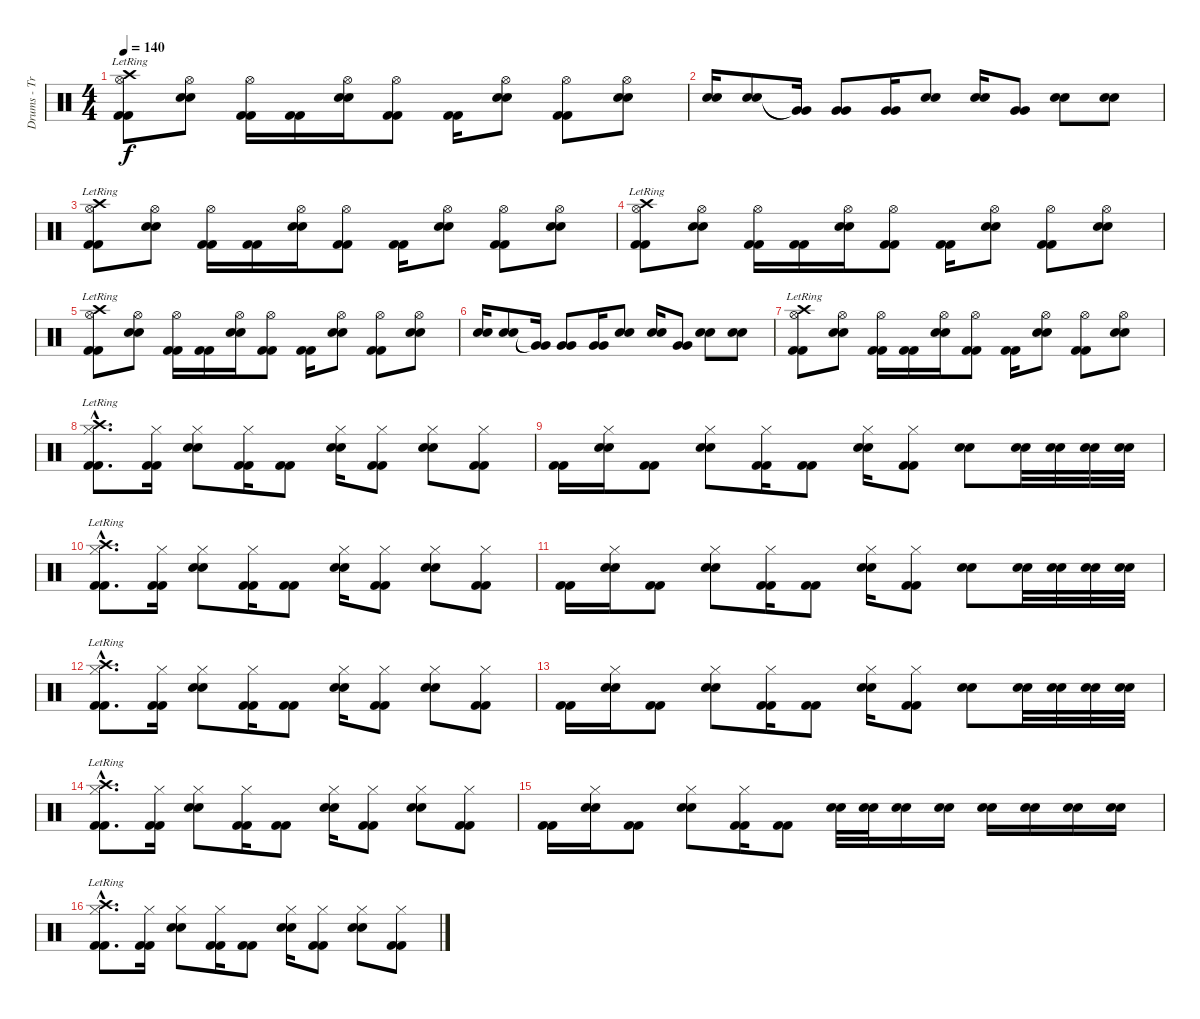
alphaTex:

\track ("Drums - Travis Barker" "Drums - Tr") {instrument percussion}
\staff {score}
\articulation defaults
\ts (4 4)
\tempo 140
\clef neutral
\ks c
("Kick (hit) 2" "Kick (hit) 2" "Hi-Hat (open)" "Crash high (hit)"{lr}).8{dy f} ("Snare (hit) 2" "Snare (hit) 2" "Hi-Hat (open)").8 ("Kick (hit) 2" "Kick (hit) 2" "Hi-Hat (open)").16 ("Kick (hit) 2" "Kick (hit) 2").16 ("Snare (hit) 2" "Snare (hit) 2" "Hi-Hat (open)").16 ("Kick (hit) 2" "Kick (hit) 2" "Hi-Hat (open)").8 ("Kick (hit) 2" "Kick (hit) 2").16 ("Snare (hit) 2" "Snare (hit) 2" "Hi-Hat (open)").8 ("Kick (hit) 2" "Kick (hit) 2" "Hi-Hat (open)").8 ("Snare (hit) 2" "Snare (hit) 2" "Hi-Hat (open)").8 |
("Snare (hit) 2" "Snare (hit) 2").16 ("Snare (hit) 2" "Snare (hit) 2").8 ("Very Low Tom (hit)"{t} "Very Low Tom (hit)"{t}).16 ("Very Low Tom (hit)" "Very Low Tom (hit)").8 ("Very Low Tom (hit)" "Very Low Tom (hit)").16 ("Snare (hit) 2" "Snare (hit) 2").8 ("Snare (hit) 2" "Snare (hit) 2").16 ("Very Low Tom (hit)" "Very Low Tom (hit)").8 ("Snare (hit) 2" "Snare (hit) 2").8 ("Snare (hit) 2" "Snare (hit) 2").8 |
("Kick (hit) 2" "Kick (hit) 2" "Hi-Hat (open)" "Crash high (hit)"{lr}).8 ("Snare (hit) 2" "Snare (hit) 2" "Hi-Hat (open)").8 ("Kick (hit) 2" "Kick (hit) 2" "Hi-Hat (open)").16 ("Kick (hit) 2" "Kick (hit) 2").16 ("Snare (hit) 2" "Snare (hit) 2" "Hi-Hat (open)").16 ("Kick (hit) 2" "Kick (hit) 2" "Hi-Hat (open)").8 ("Kick (hit) 2" "Kick (hit) 2").16 ("Snare (hit) 2" "Snare (hit) 2" "Hi-Hat (open)").8 ("Kick (hit) 2" "Kick (hit) 2" "Hi-Hat (open)").8 ("Snare (hit) 2" "Snare (hit) 2" "Hi-Hat (open)").8 |
("Kick (hit) 2" "Kick (hit) 2" "Hi-Hat (open)" "Crash high (hit)"{lr}).8 ("Snare (hit) 2" "Snare (hit) 2" "Hi-Hat (open)").8 ("Kick (hit) 2" "Kick (hit) 2" "Hi-Hat (open)").16 ("Kick (hit) 2" "Kick (hit) 2").16 ("Snare (hit) 2" "Snare (hit) 2" "Hi-Hat (open)").16 ("Kick (hit) 2" "Kick (hit) 2" "Hi-Hat (open)").8 ("Kick (hit) 2" "Kick (hit) 2").16 ("Snare (hit) 2" "Snare (hit) 2" "Hi-Hat (open)").8 ("Kick (hit) 2" "Kick (hit) 2" "Hi-Hat (open)").8 ("Snare (hit) 2" "Snare (hit) 2" "Hi-Hat (open)").8 |
("Kick (hit) 2" "Kick (hit) 2" "Hi-Hat (open)" "Crash high (hit)"{lr}).8 ("Snare (hit) 2" "Snare (hit) 2" "Hi-Hat (open)").8 ("Kick (hit) 2" "Kick (hit) 2" "Hi-Hat (open)").16 ("Kick (hit) 2" "Kick (hit) 2").16 ("Snare (hit) 2" "Snare (hit) 2" "Hi-Hat (open)").16 ("Kick (hit) 2" "Kick (hit) 2" "Hi-Hat (open)").8 ("Kick (hit) 2" "Kick (hit) 2").16 ("Snare (hit) 2" "Snare (hit) 2" "Hi-Hat (open)").8 ("Kick (hit) 2" "Kick (hit) 2" "Hi-Hat (open)").8 ("Snare (hit) 2" "Snare (hit) 2" "Hi-Hat (open)").8 |
("Snare (hit) 2" "Snare (hit) 2").16 ("Snare (hit) 2" "Snare (hit) 2").8 ("Very Low Tom (hit)"{t} "Very Low Tom (hit)"{t}).16 ("Very Low Tom (hit)" "Very Low Tom (hit)").8 ("Very Low Tom (hit)" "Very Low Tom (hit)").16 ("Snare (hit) 2" "Snare (hit) 2").8 ("Snare (hit) 2" "Snare (hit) 2").16 ("Very Low Tom (hit)" "Very Low Tom (hit)").8 ("Snare (hit) 2" "Snare (hit) 2").8 ("Snare (hit) 2" "Snare (hit) 2").8 |
("Kick (hit) 2" "Kick (hit) 2" "Hi-Hat (open)" "Crash high (hit)"{lr}).8 ("Snare (hit) 2" "Snare (hit) 2" "Hi-Hat (open)").8 ("Kick (hit) 2" "Kick (hit) 2" "Hi-Hat (open)").16 ("Kick (hit) 2" "Kick (hit) 2").16 ("Snare (hit) 2" "Snare (hit) 2" "Hi-Hat (open)").16 ("Kick (hit) 2" "Kick (hit) 2" "Hi-Hat (open)").8 ("Kick (hit) 2" "Kick (hit) 2").16 ("Snare (hit) 2" "Snare (hit) 2" "Hi-Hat (open)").8 ("Kick (hit) 2" "Kick (hit) 2" "Hi-Hat (open)").8 ("Snare (hit) 2" "Snare (hit) 2" "Hi-Hat (open)").8 |
("Kick (hit) 2"{hac} "Kick (hit) 2"{hac} "Hi-Hat (closed)"{hac} "Crash high (hit)"{hac lr}).8{d} ("Kick (hit) 2" "Kick (hit) 2" "Hi-Hat (closed)").16 ("Snare (hit) 2" "Snare (hit) 2" "Hi-Hat (closed)").8 ("Kick (hit) 2" "Kick (hit) 2" "Hi-Hat (closed)").16 ("Kick (hit) 2" "Kick (hit) 2").8 ("Snare (hit) 2" "Snare (hit) 2" "Hi-Hat (closed)").16 ("Kick (hit) 2" "Kick (hit) 2" "Hi-Hat (closed)").8 ("Snare (hit) 2" "Snare (hit) 2" "Hi-Hat (closed)").8 ("Kick (hit) 2" "Kick (hit) 2" "Hi-Hat (closed)").8 |
("Kick (hit) 2" "Kick (hit) 2").16 ("Snare (hit) 2" "Snare (hit) 2" "Hi-Hat (closed)").16 ("Kick (hit) 2" "Kick (hit) 2").8 ("Snare (hit) 2" "Snare (hit) 2" "Hi-Hat (closed)").8 ("Kick (hit) 2" "Kick (hit) 2" "Hi-Hat (closed)").16 ("Kick (hit) 2" "Kick (hit) 2").8 ("Snare (hit) 2" "Snare (hit) 2" "Hi-Hat (closed)").16 ("Kick (hit) 2" "Kick (hit) 2" "Hi-Hat (closed)").8 ("Snare (hit) 2" "Snare (hit) 2").8 ("Snare (hit) 2" "Snare (hit) 2").32 ("Snare (hit) 2" "Snare (hit) 2").32 ("Snare (hit) 2" "Snare (hit) 2").32 ("Snare (hit) 2" "Snare (hit) 2").32 |
("Kick (hit) 2"{hac} "Kick (hit) 2"{hac} "Hi-Hat (closed)"{hac} "Crash high (hit)"{hac lr}).8{d} ("Kick (hit) 2" "Kick (hit) 2" "Hi-Hat (closed)").16 ("Snare (hit) 2" "Snare (hit) 2" "Hi-Hat (closed)").8 ("Kick (hit) 2" "Kick (hit) 2" "Hi-Hat (closed)").16 ("Kick (hit) 2" "Kick (hit) 2").8 ("Snare (hit) 2" "Snare (hit) 2" "Hi-Hat (closed)").16 ("Kick (hit) 2" "Kick (hit) 2" "Hi-Hat (closed)").8 ("Snare (hit) 2" "Snare (hit) 2" "Hi-Hat (closed)").8 ("Kick (hit) 2" "Kick (hit) 2" "Hi-Hat (closed)").8 |
("Kick (hit) 2" "Kick (hit) 2").16 ("Snare (hit) 2" "Snare (hit) 2" "Hi-Hat (closed)").16 ("Kick (hit) 2" "Kick (hit) 2").8 ("Snare (hit) 2" "Snare (hit) 2" "Hi-Hat (closed)").8 ("Kick (hit) 2" "Kick (hit) 2" "Hi-Hat (closed)").16 ("Kick (hit) 2" "Kick (hit) 2").8 ("Snare (hit) 2" "Snare (hit) 2" "Hi-Hat (closed)").16 ("Kick (hit) 2" "Kick (hit) 2" "Hi-Hat (closed)").8 ("Snare (hit) 2" "Snare (hit) 2").8 ("Snare (hit) 2" "Snare (hit) 2").32 ("Snare (hit) 2" "Snare (hit) 2").32 ("Snare (hit) 2" "Snare (hit) 2").32 ("Snare (hit) 2" "Snare (hit) 2").32 |
("Kick (hit) 2"{hac} "Kick (hit) 2"{hac} "Hi-Hat (closed)"{hac} "Crash high (hit)"{hac lr}).8{d} ("Kick (hit) 2" "Kick (hit) 2" "Hi-Hat (closed)").16 ("Snare (hit) 2" "Snare (hit) 2" "Hi-Hat (closed)").8 ("Kick (hit) 2" "Kick (hit) 2" "Hi-Hat (closed)").16 ("Kick (hit) 2" "Kick (hit) 2").8 ("Snare (hit) 2" "Snare (hit) 2" "Hi-Hat (closed)").16 ("Kick (hit) 2" "Kick (hit) 2" "Hi-Hat (closed)").8 ("Snare (hit) 2" "Snare (hit) 2" "Hi-Hat (closed)").8 ("Kick (hit) 2" "Kick (hit) 2" "Hi-Hat (closed)").8 |
("Kick (hit) 2" "Kick (hit) 2").16 ("Snare (hit) 2" "Snare (hit) 2" "Hi-Hat (closed)").16 ("Kick (hit) 2" "Kick (hit) 2").8 ("Snare (hit) 2" "Snare (hit) 2" "Hi-Hat (closed)").8 ("Kick (hit) 2" "Kick (hit) 2" "Hi-Hat (closed)").16 ("Kick (hit) 2" "Kick (hit) 2").8 ("Snare (hit) 2" "Snare (hit) 2" "Hi-Hat (closed)").16 ("Kick (hit) 2" "Kick (hit) 2" "Hi-Hat (closed)").8 ("Snare (hit) 2" "Snare (hit) 2").8 ("Snare (hit) 2" "Snare (hit) 2").32 ("Snare (hit) 2" "Snare (hit) 2").32 ("Snare (hit) 2" "Snare (hit) 2").32 ("Snare (hit) 2" "Snare (hit) 2").32 |
("Kick (hit) 2"{hac} "Kick (hit) 2"{hac} "Hi-Hat (closed)"{hac} "Crash high (hit)"{hac lr}).8{d} ("Kick (hit) 2" "Kick (hit) 2" "Hi-Hat (closed)").16 ("Snare (hit) 2" "Snare (hit) 2" "Hi-Hat (closed)").8 ("Kick (hit) 2" "Kick (hit) 2" "Hi-Hat (closed)").16 ("Kick (hit) 2" "Kick (hit) 2").8 ("Snare (hit) 2" "Snare (hit) 2" "Hi-Hat (closed)").16 ("Kick (hit) 2" "Kick (hit) 2" "Hi-Hat (closed)").8 ("Snare (hit) 2" "Snare (hit) 2" "Hi-Hat (closed)").8 ("Kick (hit) 2" "Kick (hit) 2" "Hi-Hat (closed)").8 |
("Kick (hit) 2" "Kick (hit) 2").16 ("Snare (hit) 2" "Snare (hit) 2" "Hi-Hat (closed)").16 ("Kick (hit) 2" "Kick (hit) 2").8 ("Snare (hit) 2" "Snare (hit) 2" "Hi-Hat (closed)").8 ("Kick (hit) 2" "Kick (hit) 2" "Hi-Hat (closed)").16 ("Kick (hit) 2" "Kick (hit) 2").8 ("Snare (hit) 2" "Snare (hit) 2").32 ("Snare (hit) 2" "Snare (hit) 2").32 ("Snare (hit) 2" "Snare (hit) 2").16 ("Snare (hit) 2" "Snare (hit) 2").16 ("Snare (hit) 2" "Snare (hit) 2").16 ("Snare (hit) 2" "Snare (hit) 2").16 ("Snare (hit) 2" "Snare (hit) 2").16 ("Snare (hit) 2" "Snare (hit) 2").16 |
("Kick (hit) 2"{hac} "Kick (hit) 2"{hac} "Hi-Hat (closed)"{hac} "Crash high (hit)"{hac lr}).8{d} ("Kick (hit) 2" "Kick (hit) 2" "Hi-Hat (closed)").16 ("Snare (hit) 2" "Snare (hit) 2" "Hi-Hat (closed)").8 ("Kick (hit) 2" "Kick (hit) 2" "Hi-Hat (closed)").16 ("Kick (hit) 2" "Kick (hit) 2").8 ("Snare (hit) 2" "Snare (hit) 2" "Hi-Hat (closed)").16 ("Kick (hit) 2" "Kick (hit) 2" "Hi-Hat (closed)").8 ("Snare (hit) 2" "Snare (hit) 2" "Hi-Hat (closed)").8 ("Kick (hit) 2" "Kick (hit) 2" "Hi-Hat (closed)").8
